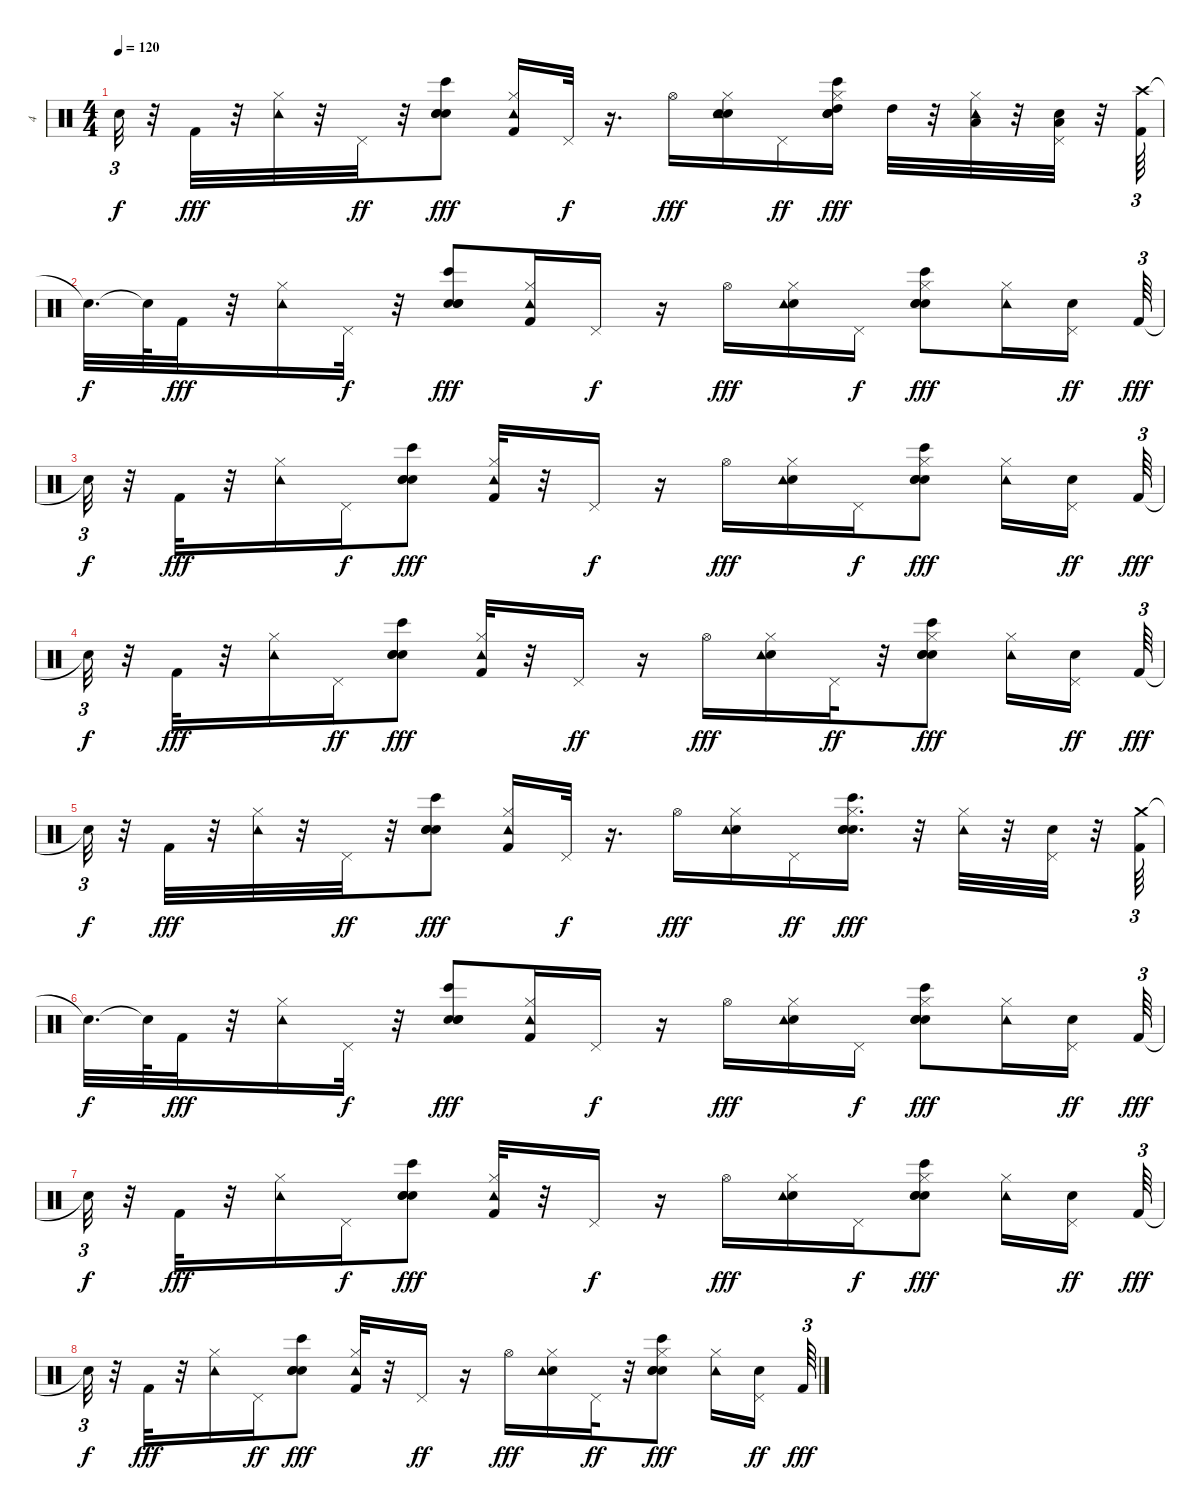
\track ("4" "4") {instrument percussion}
\staff {score}
\articulation defaults
\ts (4 4)
\tempo 120
\clef neutral
\ks c "Snare (hit)"{t}.32{tu (3 2) dy f}
r.32 "Kick (hit) 2".32{dy fff} r.32 ("Hi-Hat (closed)" "Tambourine (hit)").32 r.32 "Pedal Hi-Hat (hit)".32{dy ff} r.32 ("Snare (hit) 2" "Electric Snare (hit)" "Bongo High (hit)" "Hand Clap (hit)").8{dy fff} ("Hi-Hat (closed)" "Kick (hit) 2" "Tambourine (hit)").16 "Pedal Hi-Hat (hit)".32{dy f} r.16{d} "Hi-Hat (open)".16{dy fff} ("Snare (hit) 2" "Hi-Hat (closed)" "Electric Snare (hit)" "Tambourine (hit)").16 "Pedal Hi-Hat (hit)".16{dy ff} ("Snare (hit) 2" "High Tom (hit)" "Electric Snare (hit)" "Hand Clap (hit)" "Hi-Hat (closed)" "Bongo High (hit)").16{dy fff} "High Tom (hit)".32 r.32 ("Hi-Hat (closed)" "Low Tom (hit)" "Tambourine (hit)").32 r.32 ("Pedal Hi-Hat (hit)" "Snare (hit) 2" "Low Tom (hit)").32 r.32 ("Crash high (hit)" "Kick (hit) 2").64{tu (3 2)} |
"Snare (hit)"{t}.32{d dy f} "Snare (hit)"{t}.64 "Kick (hit) 2".32{dy fff} r.32 ("Hi-Hat (closed)" "Tambourine (hit)").16 "Pedal Hi-Hat (hit)".32{dy f} r.32 ("Snare (hit) 2" "Bongo High (hit)" "Hand Clap (hit)" "Electric Snare (hit)").8{dy fff} ("Hi-Hat (closed)" "Tambourine (hit)" "Kick (hit) 2").16 "Pedal Hi-Hat (hit)".16{dy f} r.16 "Hi-Hat (open)".16{dy fff} ("Hi-Hat (closed)" "Snare (hit) 2" "Tambourine (hit)").16 "Pedal Hi-Hat (hit)".16{dy f} ("Snare (hit) 2" "Hi-Hat (closed)" "Hand Clap (hit)" "Bongo High (hit)" "Electric Snare (hit)").8{dy fff} ("Hi-Hat (closed)" "Tambourine (hit)").16 ("Pedal Hi-Hat (hit)" "Snare (hit) 2").16{dy ff} "Kick (hit) 2".64{tu (3 2) dy fff} |
"Snare (hit)"{t}.32{tu (3 2) dy f} r.32 "Kick (hit) 2".32{dy fff} r.32 ("Hi-Hat (closed)" "Tambourine (hit)").16 "Pedal Hi-Hat (hit)".16{dy f} ("Snare (hit) 2" "Electric Snare (hit)" "Bongo High (hit)" "Hand Clap (hit)").8{dy fff} ("Hi-Hat (closed)" "Kick (hit) 2" "Tambourine (hit)").32 r.32 "Pedal Hi-Hat (hit)".16{dy f} r.16 "Hi-Hat (open)".16{dy fff} ("Snare (hit) 2" "Hi-Hat (closed)" "Tambourine (hit)").16 "Pedal Hi-Hat (hit)".16{dy f} ("Snare (hit) 2" "Hand Clap (hit)" "Hi-Hat (closed)" "Bongo High (hit)" "Electric Snare (hit)").8{dy fff} ("Hi-Hat (closed)" "Tambourine (hit)").16 ("Pedal Hi-Hat (hit)" "Snare (hit) 2").16{dy ff beam splitsecondary} "Kick (hit) 2".64{tu (3 2) dy fff} |
"Snare (hit)"{t}.32{tu (3 2) dy f} r.32 "Kick (hit) 2".32{dy fff} r.32 ("Hi-Hat (closed)" "Tambourine (hit)").16 "Pedal Hi-Hat (hit)".16{dy ff} ("Snare (hit) 2" "Electric Snare (hit)" "Bongo High (hit)" "Hand Clap (hit)").8{dy fff} ("Hi-Hat (closed)" "Kick (hit) 2" "Tambourine (hit)").32 r.32 "Pedal Hi-Hat (hit)".16{dy ff} r.16 "Hi-Hat (open)".16{dy fff} ("Snare (hit) 2" "Hi-Hat (closed)" "Tambourine (hit)").16 "Pedal Hi-Hat (hit)".32{dy ff} r.32 ("Snare (hit) 2" "Electric Snare (hit)" "Hi-Hat (closed)" "Hand Clap (hit)" "Bongo High (hit)").8{dy fff} ("Hi-Hat (closed)" "Tambourine (hit)").16 ("Pedal Hi-Hat (hit)" "Snare (hit) 2").16{dy ff beam splitsecondary} "Kick (hit) 2".64{tu (3 2) dy fff} |
"Snare (hit)"{t}.32{tu (3 2) dy f} r.32 "Kick (hit) 2".32{dy fff} r.32 ("Hi-Hat (closed)" "Tambourine (hit)").32 r.32 "Pedal Hi-Hat (hit)".32{dy ff} r.32 ("Snare (hit) 2" "Electric Snare (hit)" "Bongo High (hit)" "Hand Clap (hit)").8{dy fff} ("Hi-Hat (closed)" "Kick (hit) 2" "Tambourine (hit)").16 "Pedal Hi-Hat (hit)".32{dy f} r.16{d} "Hi-Hat (open)".16{dy fff} ("Snare (hit) 2" "Hi-Hat (closed)" "Tambourine (hit)").16 "Pedal Hi-Hat (hit)".16{dy ff} ("Snare (hit) 2" "Electric Snare (hit)" "Hand Clap (hit)" "Hi-Hat (closed)" "Bongo High (hit)").16{d dy fff} r.32 ("Hi-Hat (closed)" "Tambourine (hit)").32 r.32 ("Pedal Hi-Hat (hit)" "Snare (hit) 2").32 r.32 ("Crash medium (hit)" "Kick (hit) 2").64{tu (3 2)} |
"Snare (hit)"{t}.32{d dy f} "Snare (hit)"{t}.64 "Kick (hit) 2".32{dy fff} r.32 ("Hi-Hat (closed)" "Tambourine (hit)").16 "Pedal Hi-Hat (hit)".32{dy f} r.32 ("Snare (hit) 2" "Bongo High (hit)" "Hand Clap (hit)" "Electric Snare (hit)").8{dy fff} ("Hi-Hat (closed)" "Tambourine (hit)" "Kick (hit) 2").16 "Pedal Hi-Hat (hit)".16{dy f} r.16 "Hi-Hat (open)".16{dy fff} ("Hi-Hat (closed)" "Snare (hit) 2" "Tambourine (hit)").16 "Pedal Hi-Hat (hit)".16{dy f} ("Snare (hit) 2" "Hi-Hat (closed)" "Hand Clap (hit)" "Bongo High (hit)" "Electric Snare (hit)").8{dy fff} ("Hi-Hat (closed)" "Tambourine (hit)").16 ("Pedal Hi-Hat (hit)" "Snare (hit) 2").16{dy ff} "Kick (hit) 2".64{tu (3 2) dy fff} |
"Snare (hit)"{t}.32{tu (3 2) dy f} r.32 "Kick (hit) 2".32{dy fff} r.32 ("Hi-Hat (closed)" "Tambourine (hit)").16 "Pedal Hi-Hat (hit)".16{dy f} ("Snare (hit) 2" "Electric Snare (hit)" "Bongo High (hit)" "Hand Clap (hit)").8{dy fff} ("Hi-Hat (closed)" "Kick (hit) 2" "Tambourine (hit)").32 r.32 "Pedal Hi-Hat (hit)".16{dy f} r.16 "Hi-Hat (open)".16{dy fff} ("Snare (hit) 2" "Hi-Hat (closed)" "Tambourine (hit)").16 "Pedal Hi-Hat (hit)".16{dy f} ("Snare (hit) 2" "Hand Clap (hit)" "Hi-Hat (closed)" "Bongo High (hit)" "Electric Snare (hit)").8{dy fff} ("Hi-Hat (closed)" "Tambourine (hit)").16 ("Pedal Hi-Hat (hit)" "Snare (hit) 2").16{dy ff beam splitsecondary} "Kick (hit) 2".64{tu (3 2) dy fff} |
"Snare (hit)"{t}.32{tu (3 2) dy f} r.32 "Kick (hit) 2".32{dy fff} r.32 ("Hi-Hat (closed)" "Tambourine (hit)").16 "Pedal Hi-Hat (hit)".16{dy ff} ("Snare (hit) 2" "Electric Snare (hit)" "Bongo High (hit)" "Hand Clap (hit)").8{dy fff} ("Hi-Hat (closed)" "Kick (hit) 2" "Tambourine (hit)").32 r.32 "Pedal Hi-Hat (hit)".16{dy ff} r.16 "Hi-Hat (open)".16{dy fff} ("Snare (hit) 2" "Hi-Hat (closed)" "Tambourine (hit)").16 "Pedal Hi-Hat (hit)".32{dy ff} r.32 ("Snare (hit) 2" "Electric Snare (hit)" "Hi-Hat (closed)" "Hand Clap (hit)" "Bongo High (hit)").8{dy fff} ("Hi-Hat (closed)" "Tambourine (hit)").16 ("Pedal Hi-Hat (hit)" "Snare (hit) 2").16{dy ff beam splitsecondary} "Kick (hit) 2".64{tu (3 2) dy fff}
